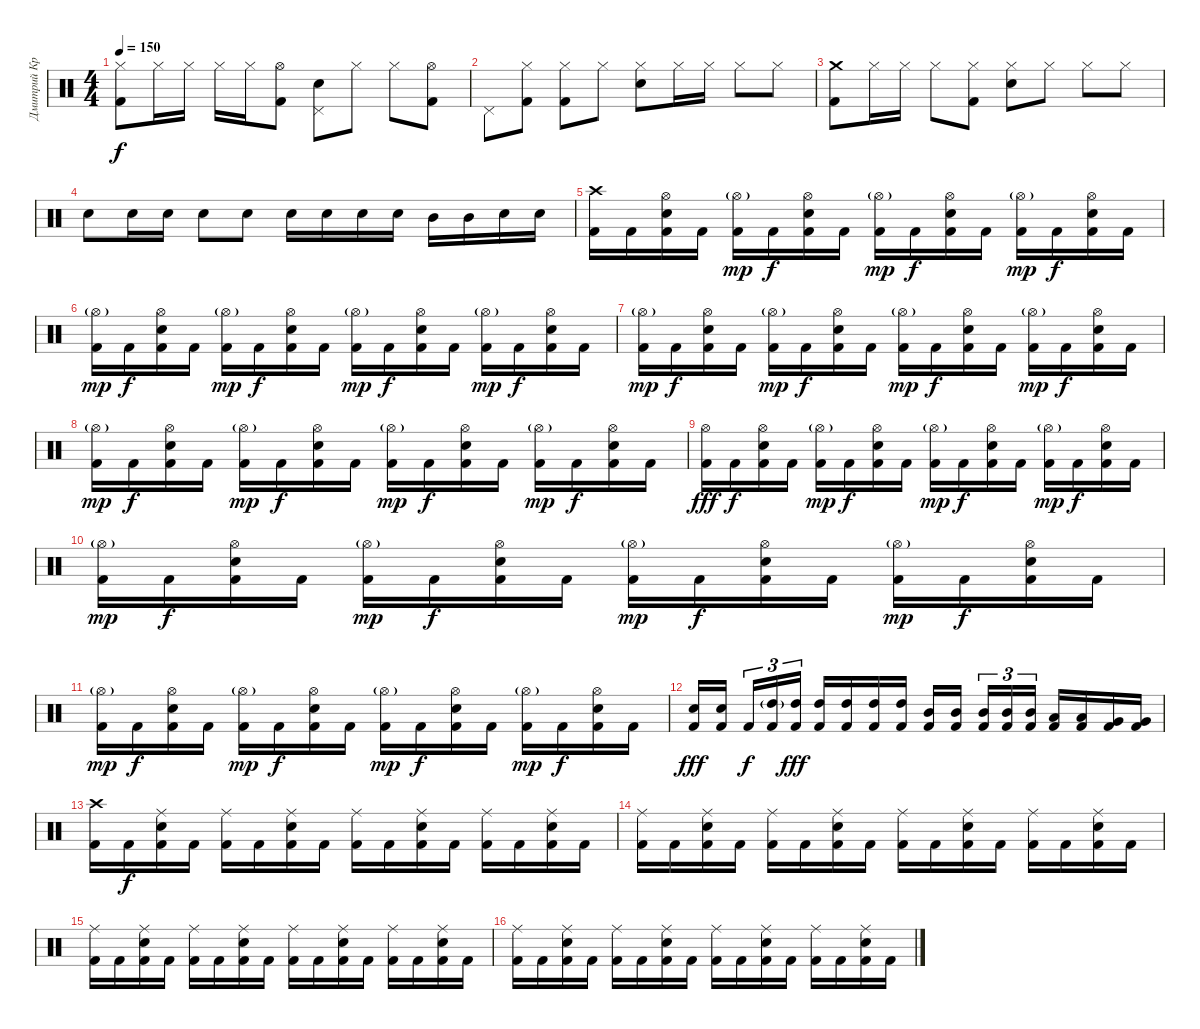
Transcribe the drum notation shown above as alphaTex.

\track ("Дмитрий Кривенков" "Дмитрий Кр") {instrument percussion}
\staff {score}
\articulation defaults
\ts (4 4)
\tempo 150
\clef neutral
\ks c
("Hi-Hat (closed)" "Kick (hit) 2").8{dy f} "Hi-Hat (closed)".16 "Hi-Hat (closed)".16 "Hi-Hat (closed)".16 "Hi-Hat (closed)".16 ("Hi-Hat (open)" "Kick (hit) 2").8 ("Pedal Hi-Hat (hit)" "Electric Snare (hit)").8 "Hi-Hat (closed)".8 "Hi-Hat (closed)".8 ("Hi-Hat (open)" "Kick (hit) 2").8 |
"Pedal Hi-Hat (hit)".8 ("Hi-Hat (closed)" "Kick (hit) 2").8 ("Hi-Hat (closed)" "Kick (hit) 2").8 "Hi-Hat (closed)".8 ("Hi-Hat (closed)" "Electric Snare (hit)").8 "Hi-Hat (closed)".16 "Hi-Hat (closed)".16 "Hi-Hat (closed)".8 "Hi-Hat (closed)".8 |
("Crash medium (hit)" "Kick (hit) 2").8 "Hi-Hat (closed)".16 "Hi-Hat (closed)".16 "Hi-Hat (closed)".8 ("Hi-Hat (closed)" "Kick (hit) 2").8 ("Hi-Hat (closed)" "Electric Snare (hit)").8 "Hi-Hat (closed)".8 "Hi-Hat (closed)".8 "Hi-Hat (closed)".8 |
"Electric Snare (hit)".8 "Electric Snare (hit)".16 "Electric Snare (hit)".16 "Electric Snare (hit)".8 "Electric Snare (hit)".8 "Electric Snare (hit)".16 "Electric Snare (hit)".16 "Electric Snare (hit)".16 "Electric Snare (hit)".16 "Mid Tom (hit)".16 "Mid Tom (hit)".16 "Electric Snare (hit)".16 "Electric Snare (hit)".16 |
("Crash high (hit)" "Kick (hit) 2").16 "Kick (hit) 2".16 ("Hi-Hat (open)" "Electric Snare (hit)" "Kick (hit) 2").16 "Kick (hit) 2".16 ("Hi-Hat (open)"{g} "Kick (hit) 2").16{dy mp} "Kick (hit) 2".16{dy f} ("Hi-Hat (open)" "Electric Snare (hit)" "Kick (hit) 2").16 "Kick (hit) 2".16 ("Hi-Hat (open)"{g} "Kick (hit) 2").16{dy mp} "Kick (hit) 2".16{dy f} ("Hi-Hat (open)" "Electric Snare (hit)" "Kick (hit) 2").16 "Kick (hit) 2".16 ("Hi-Hat (open)"{g} "Kick (hit) 2").16{dy mp} "Kick (hit) 2".16{dy f} ("Hi-Hat (open)" "Electric Snare (hit)" "Kick (hit) 2").16 "Kick (hit) 2".16 |
("Hi-Hat (open)"{g} "Kick (hit) 2").16{dy mp} "Kick (hit) 2".16{dy f} ("Hi-Hat (open)" "Electric Snare (hit)" "Kick (hit) 2").16 "Kick (hit) 2".16 ("Hi-Hat (open)"{g} "Kick (hit) 2").16{dy mp} "Kick (hit) 2".16{dy f} ("Hi-Hat (open)" "Electric Snare (hit)" "Kick (hit) 2").16 "Kick (hit) 2".16 ("Hi-Hat (open)"{g} "Kick (hit) 2").16{dy mp} "Kick (hit) 2".16{dy f} ("Hi-Hat (open)" "Electric Snare (hit)" "Kick (hit) 2").16 "Kick (hit) 2".16 ("Hi-Hat (open)"{g} "Kick (hit) 2").16{dy mp} "Kick (hit) 2".16{dy f} ("Hi-Hat (open)" "Electric Snare (hit)" "Kick (hit) 2").16 "Kick (hit) 2".16 |
("Hi-Hat (open)"{g} "Kick (hit) 2").16{dy mp} "Kick (hit) 2".16{dy f} ("Hi-Hat (open)" "Electric Snare (hit)" "Kick (hit) 2").16 "Kick (hit) 2".16 ("Hi-Hat (open)"{g} "Kick (hit) 2").16{dy mp} "Kick (hit) 2".16{dy f} ("Hi-Hat (open)" "Electric Snare (hit)" "Kick (hit) 2").16 "Kick (hit) 2".16 ("Hi-Hat (open)"{g} "Kick (hit) 2").16{dy mp} "Kick (hit) 2".16{dy f} ("Hi-Hat (open)" "Electric Snare (hit)" "Kick (hit) 2").16 "Kick (hit) 2".16 ("Hi-Hat (open)"{g} "Kick (hit) 2").16{dy mp} "Kick (hit) 2".16{dy f} ("Hi-Hat (open)" "Electric Snare (hit)" "Kick (hit) 2").16 "Kick (hit) 2".16 |
("Hi-Hat (open)"{g} "Kick (hit) 2").16{dy mp} "Kick (hit) 2".16{dy f} ("Hi-Hat (open)" "Electric Snare (hit)" "Kick (hit) 2").16 "Kick (hit) 2".16 ("Hi-Hat (open)"{g} "Kick (hit) 2").16{dy mp} "Kick (hit) 2".16{dy f} ("Hi-Hat (open)" "Electric Snare (hit)" "Kick (hit) 2").16 "Kick (hit) 2".16 ("Hi-Hat (open)"{g} "Kick (hit) 2").16{dy mp} "Kick (hit) 2".16{dy f} ("Hi-Hat (open)" "Electric Snare (hit)" "Kick (hit) 2").16 "Kick (hit) 2".16 ("Hi-Hat (open)"{g} "Kick (hit) 2").16{dy mp} "Kick (hit) 2".16{dy f} ("Hi-Hat (open)" "Electric Snare (hit)" "Kick (hit) 2").16 "Kick (hit) 2".16 |
("Hi-Hat (open)" "Kick (hit) 2").16{dy fff} "Kick (hit) 2".16{dy f} ("Hi-Hat (open)" "Electric Snare (hit)" "Kick (hit) 2").16 "Kick (hit) 2".16 ("Hi-Hat (open)"{g} "Kick (hit) 2").16{dy mp} "Kick (hit) 2".16{dy f} ("Hi-Hat (open)" "Electric Snare (hit)" "Kick (hit) 2").16 "Kick (hit) 2".16 ("Hi-Hat (open)"{g} "Kick (hit) 2").16{dy mp} "Kick (hit) 2".16{dy f} ("Hi-Hat (open)" "Electric Snare (hit)" "Kick (hit) 2").16 "Kick (hit) 2".16 ("Hi-Hat (open)"{g} "Kick (hit) 2").16{dy mp} "Kick (hit) 2".16{dy f} ("Hi-Hat (open)" "Electric Snare (hit)" "Kick (hit) 2").16 "Kick (hit) 2".16 |
("Hi-Hat (open)"{g} "Kick (hit) 2").16{dy mp} "Kick (hit) 2".16{dy f} ("Hi-Hat (open)" "Electric Snare (hit)" "Kick (hit) 2").16 "Kick (hit) 2".16 ("Hi-Hat (open)"{g} "Kick (hit) 2").16{dy mp} "Kick (hit) 2".16{dy f} ("Hi-Hat (open)" "Electric Snare (hit)" "Kick (hit) 2").16 "Kick (hit) 2".16 ("Hi-Hat (open)"{g} "Kick (hit) 2").16{dy mp} "Kick (hit) 2".16{dy f} ("Hi-Hat (open)" "Electric Snare (hit)" "Kick (hit) 2").16 "Kick (hit) 2".16 ("Hi-Hat (open)"{g} "Kick (hit) 2").16{dy mp} "Kick (hit) 2".16{dy f} ("Hi-Hat (open)" "Electric Snare (hit)" "Kick (hit) 2").16 "Kick (hit) 2".16 |
("Hi-Hat (open)"{g} "Kick (hit) 2").16{dy mp} "Kick (hit) 2".16{dy f} ("Hi-Hat (open)" "Electric Snare (hit)" "Kick (hit) 2").16 "Kick (hit) 2".16 ("Hi-Hat (open)"{g} "Kick (hit) 2").16{dy mp} "Kick (hit) 2".16{dy f} ("Hi-Hat (open)" "Electric Snare (hit)" "Kick (hit) 2").16 "Kick (hit) 2".16 ("Hi-Hat (open)"{g} "Kick (hit) 2").16{dy mp} "Kick (hit) 2".16{dy f} ("Hi-Hat (open)" "Electric Snare (hit)" "Kick (hit) 2").16 "Kick (hit) 2".16 ("Hi-Hat (open)"{g} "Kick (hit) 2").16{dy mp} "Kick (hit) 2".16{dy f} ("Hi-Hat (open)" "Electric Snare (hit)" "Kick (hit) 2").16 "Kick (hit) 2".16 |
("Electric Snare (hit)" "Kick (hit) 2").16{dy fff} ("Electric Snare (hit)" "Kick (hit) 2").16{beam splitsecondary} "Kick (hit) 2".16{tu (3 2) dy f} ("High Tom (hit)"{g} "Kick (hit) 2").16{tu (3 2)} ("High Tom (hit)" "Kick (hit) 2").16{tu (3 2) dy fff} ("High Tom (hit)" "Kick (hit) 2").16 ("High Tom (hit)" "Kick (hit) 2").16 ("High Tom (hit)" "Kick (hit) 2").16 ("High Tom (hit)" "Kick (hit) 2").16 ("Mid Tom (hit)" "Kick (hit) 2").16 ("Mid Tom (hit)" "Kick (hit) 2").16{beam splitsecondary} ("Mid Tom (hit)" "Kick (hit) 2").16{tu (3 2)} ("Mid Tom (hit)" "Kick (hit) 2").16{tu (3 2)} ("Mid Tom (hit)" "Kick (hit) 2").16{tu (3 2)} ("Low Tom (hit)" "Kick (hit) 2").16 ("Low Tom (hit)" "Kick (hit) 2").16 ("Very Low Tom (hit)" "Kick (hit) 2").16 ("Very Low Tom (hit)" "Kick (hit) 2").16 |
("Crash high (hit)" "Kick (hit) 2").16 "Kick (hit) 2".16{dy f} ("Ride (middle)" "Electric Snare (hit)" "Kick (hit) 2").16 "Kick (hit) 2".16 ("Ride (middle)" "Kick (hit) 2").16 "Kick (hit) 2".16 ("Ride (middle)" "Electric Snare (hit)" "Kick (hit) 2").16 "Kick (hit) 2".16 ("Ride (middle)" "Kick (hit) 2").16 "Kick (hit) 2".16 ("Ride (middle)" "Electric Snare (hit)" "Kick (hit) 2").16 "Kick (hit) 2".16 ("Ride (middle)" "Kick (hit) 2").16 "Kick (hit) 2".16 ("Ride (middle)" "Electric Snare (hit)" "Kick (hit) 2").16 "Kick (hit) 2".16 |
("Ride (middle)" "Kick (hit) 2").16 "Kick (hit) 2".16 ("Ride (middle)" "Electric Snare (hit)" "Kick (hit) 2").16 "Kick (hit) 2".16 ("Ride (middle)" "Kick (hit) 2").16 "Kick (hit) 2".16 ("Ride (middle)" "Electric Snare (hit)" "Kick (hit) 2").16 "Kick (hit) 2".16 ("Ride (middle)" "Kick (hit) 2").16 "Kick (hit) 2".16 ("Ride (middle)" "Electric Snare (hit)" "Kick (hit) 2").16 "Kick (hit) 2".16 ("Ride (middle)" "Kick (hit) 2").16 "Kick (hit) 2".16 ("Ride (middle)" "Electric Snare (hit)" "Kick (hit) 2").16 "Kick (hit) 2".16 |
("Ride (middle)" "Kick (hit) 2").16 "Kick (hit) 2".16 ("Ride (middle)" "Electric Snare (hit)" "Kick (hit) 2").16 "Kick (hit) 2".16 ("Ride (middle)" "Kick (hit) 2").16 "Kick (hit) 2".16 ("Ride (middle)" "Electric Snare (hit)" "Kick (hit) 2").16 "Kick (hit) 2".16 ("Ride (middle)" "Kick (hit) 2").16 "Kick (hit) 2".16 ("Ride (middle)" "Electric Snare (hit)" "Kick (hit) 2").16 "Kick (hit) 2".16 ("Ride (middle)" "Kick (hit) 2").16 "Kick (hit) 2".16 ("Ride (middle)" "Electric Snare (hit)" "Kick (hit) 2").16 "Kick (hit) 2".16 |
("Ride (middle)" "Kick (hit) 2").16 "Kick (hit) 2".16 ("Ride (middle)" "Electric Snare (hit)" "Kick (hit) 2").16 "Kick (hit) 2".16 ("Ride (middle)" "Kick (hit) 2").16 "Kick (hit) 2".16 ("Ride (middle)" "Electric Snare (hit)" "Kick (hit) 2").16 "Kick (hit) 2".16 ("Ride (middle)" "Kick (hit) 2").16 "Kick (hit) 2".16 ("Ride (middle)" "Electric Snare (hit)" "Kick (hit) 2").16 "Kick (hit) 2".16 ("Ride (middle)" "Kick (hit) 2").16 "Kick (hit) 2".16 ("Ride (middle)" "Electric Snare (hit)" "Kick (hit) 2").16 "Kick (hit) 2".16
